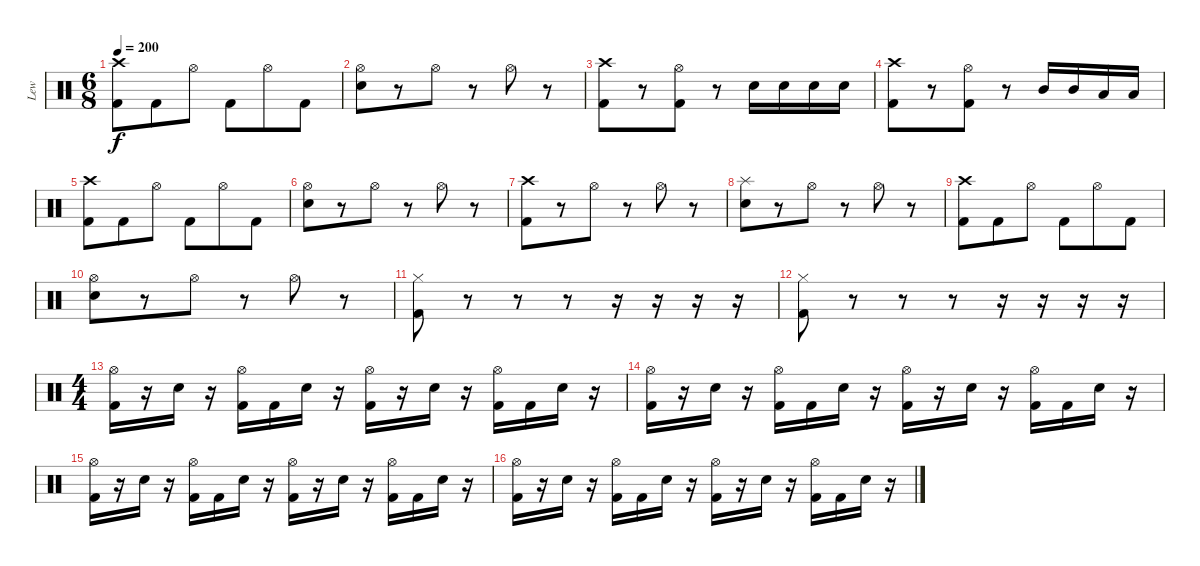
\track ("Lew" "Lew") {instrument percussion}
\staff {score}
\articulation defaults
\ts (6 8)
\tempo 200
\clef neutral
\ks c
("Crash high (hit)" "Kick (hit) 2").8{dy f} "Kick (hit) 2".8 "Hi-Hat (open)".8 "Kick (hit) 2".8 "Hi-Hat (open)".8 "Kick (hit) 2".8 |
("Hi-Hat (open)" "Electric Snare (hit)").8 r.8 "Hi-Hat (open)".8 r.8 "Hi-Hat (open)".8 r.8 |
("Crash high (hit)" "Kick (hit) 2").8 r.8 ("Hi-Hat (open)" "Kick (hit) 2").8 r.8 "Electric Snare (hit)".16 "Electric Snare (hit)".16 "Electric Snare (hit)".16 "Electric Snare (hit)".16 |
("Crash high (hit)" "Kick (hit) 2").8 r.8 ("Hi-Hat (open)" "Kick (hit) 2").8 r.8 "Mid Tom (hit)".16 "Mid Tom (hit)".16 "Low Tom (hit)".16 "Low Tom (hit)".16 |
("Crash high (hit)" "Kick (hit) 2").8 "Kick (hit) 2".8 "Hi-Hat (open)".8 "Kick (hit) 2".8 "Hi-Hat (open)".8 "Kick (hit) 2".8 |
("Hi-Hat (open)" "Electric Snare (hit)").8 r.8 "Hi-Hat (open)".8 r.8 "Hi-Hat (open)".8 r.8 |
("Crash high (hit)" "Kick (hit) 2").8 r.8 "Hi-Hat (open)".8 r.8 "Hi-Hat (open)".8 r.8 |
("Splash (hit)" "Electric Snare (hit)").8 r.8 "Hi-Hat (open)".8 r.8 "Hi-Hat (open)".8 r.8 |
("Crash high (hit)" "Kick (hit) 2").8 "Kick (hit) 2".8 "Hi-Hat (open)".8 "Kick (hit) 2".8 "Hi-Hat (open)".8 "Kick (hit) 2".8 |
("Hi-Hat (open)" "Electric Snare (hit)").8 r.8 "Hi-Hat (open)".8 r.8 "Hi-Hat (open)".8 r.8 |
("Hi-Hat (closed)" "Kick (hit) 2").8 r.8 r.8 r.8 r.16 r.16 r.16 r.16 |
("Hi-Hat (closed)" "Kick (hit) 2").8 r.8 r.8 r.8 r.16 r.16 r.16 r.16 |
\ts (4 4)
("Hi-Hat (open)" "Kick (hit) 2").16 r.16 "Electric Snare (hit)".16 r.16 ("Hi-Hat (open)" "Kick (hit) 2").16 "Kick (hit) 2".16 "Electric Snare (hit)".16 r.16 ("Hi-Hat (open)" "Kick (hit) 2").16 r.16 "Electric Snare (hit)".16 r.16 ("Hi-Hat (open)" "Kick (hit) 2").16 "Kick (hit) 2".16 "Electric Snare (hit)".16 r.16 |
("Hi-Hat (open)" "Kick (hit) 2").16 r.16 "Electric Snare (hit)".16 r.16 ("Hi-Hat (open)" "Kick (hit) 2").16 "Kick (hit) 2".16 "Electric Snare (hit)".16 r.16 ("Hi-Hat (open)" "Kick (hit) 2").16 r.16 "Electric Snare (hit)".16 r.16 ("Hi-Hat (open)" "Kick (hit) 2").16 "Kick (hit) 2".16 "Electric Snare (hit)".16 r.16 |
("Hi-Hat (open)" "Kick (hit) 2").16 r.16 "Electric Snare (hit)".16 r.16 ("Hi-Hat (open)" "Kick (hit) 2").16 "Kick (hit) 2".16 "Electric Snare (hit)".16 r.16 ("Hi-Hat (open)" "Kick (hit) 2").16 r.16 "Electric Snare (hit)".16 r.16 ("Hi-Hat (open)" "Kick (hit) 2").16 "Kick (hit) 2".16 "Electric Snare (hit)".16 r.16 |
("Hi-Hat (open)" "Kick (hit) 2").16 r.16 "Electric Snare (hit)".16 r.16 ("Hi-Hat (open)" "Kick (hit) 2").16 "Kick (hit) 2".16 "Electric Snare (hit)".16 r.16 ("Hi-Hat (open)" "Kick (hit) 2").16 r.16 "Electric Snare (hit)".16 r.16 ("Hi-Hat (open)" "Kick (hit) 2").16 "Kick (hit) 2".16 "Electric Snare (hit)".16 r.16
